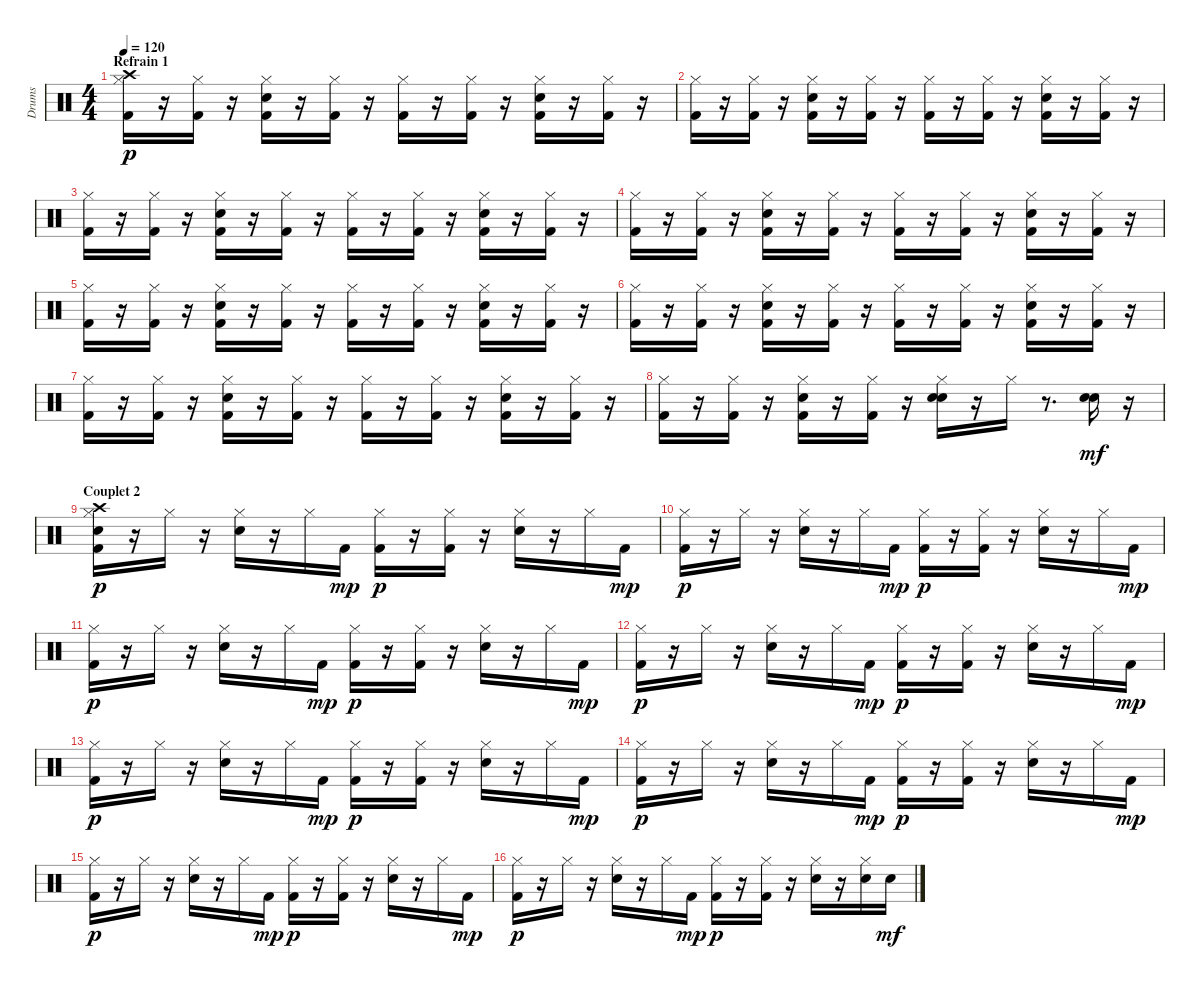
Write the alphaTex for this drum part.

\track ("Drums" "Drums") {instrument percussion}
\staff {score}
\articulation defaults
\ts (4 4)
\section ("" "Refrain 1")
\tempo 120
\clef neutral
\ks c
("Kick (hit) 2" "Hi-Hat (closed)" "Crash high (hit)").16{dy p} r.16 ("Kick (hit) 2" "Hi-Hat (closed)").16 r.16 ("Kick (hit) 2" "Electric Snare (hit)" "Hi-Hat (closed)").16 r.16 ("Kick (hit) 2" "Hi-Hat (closed)").16 r.16 ("Kick (hit) 2" "Hi-Hat (closed)").16 r.16 ("Kick (hit) 2" "Hi-Hat (closed)").16 r.16 ("Kick (hit) 2" "Electric Snare (hit)" "Hi-Hat (closed)").16 r.16 ("Kick (hit) 2" "Hi-Hat (closed)").16 r.16 |
("Kick (hit) 2" "Hi-Hat (closed)").16 r.16 ("Kick (hit) 2" "Hi-Hat (closed)").16 r.16 ("Kick (hit) 2" "Electric Snare (hit)" "Hi-Hat (closed)").16 r.16 ("Kick (hit) 2" "Hi-Hat (closed)").16 r.16 ("Kick (hit) 2" "Hi-Hat (closed)").16 r.16 ("Kick (hit) 2" "Hi-Hat (closed)").16 r.16 ("Kick (hit) 2" "Electric Snare (hit)" "Hi-Hat (closed)").16 r.16 ("Kick (hit) 2" "Hi-Hat (closed)").16 r.16 |
("Kick (hit) 2" "Hi-Hat (closed)").16 r.16 ("Kick (hit) 2" "Hi-Hat (closed)").16 r.16 ("Kick (hit) 2" "Electric Snare (hit)" "Hi-Hat (closed)").16 r.16 ("Kick (hit) 2" "Hi-Hat (closed)").16 r.16 ("Kick (hit) 2" "Hi-Hat (closed)").16 r.16 ("Kick (hit) 2" "Hi-Hat (closed)").16 r.16 ("Kick (hit) 2" "Electric Snare (hit)" "Hi-Hat (closed)").16 r.16 ("Kick (hit) 2" "Hi-Hat (closed)").16 r.16 |
("Kick (hit) 2" "Hi-Hat (closed)").16 r.16 ("Kick (hit) 2" "Hi-Hat (closed)").16 r.16 ("Kick (hit) 2" "Electric Snare (hit)" "Hi-Hat (closed)").16 r.16 ("Kick (hit) 2" "Hi-Hat (closed)").16 r.16 ("Kick (hit) 2" "Hi-Hat (closed)").16 r.16 ("Kick (hit) 2" "Hi-Hat (closed)").16 r.16 ("Kick (hit) 2" "Electric Snare (hit)" "Hi-Hat (closed)").16 r.16 ("Kick (hit) 2" "Hi-Hat (closed)").16 r.16 |
("Kick (hit) 2" "Hi-Hat (closed)").16 r.16 ("Kick (hit) 2" "Hi-Hat (closed)").16 r.16 ("Kick (hit) 2" "Electric Snare (hit)" "Hi-Hat (closed)").16 r.16 ("Kick (hit) 2" "Hi-Hat (closed)").16 r.16 ("Kick (hit) 2" "Hi-Hat (closed)").16 r.16 ("Kick (hit) 2" "Hi-Hat (closed)").16 r.16 ("Kick (hit) 2" "Electric Snare (hit)" "Hi-Hat (closed)").16 r.16 ("Kick (hit) 2" "Hi-Hat (closed)").16 r.16 |
("Kick (hit) 2" "Hi-Hat (closed)").16 r.16 ("Kick (hit) 2" "Hi-Hat (closed)").16 r.16 ("Kick (hit) 2" "Electric Snare (hit)" "Hi-Hat (closed)").16 r.16 ("Kick (hit) 2" "Hi-Hat (closed)").16 r.16 ("Kick (hit) 2" "Hi-Hat (closed)").16 r.16 ("Kick (hit) 2" "Hi-Hat (closed)").16 r.16 ("Kick (hit) 2" "Electric Snare (hit)" "Hi-Hat (closed)").16 r.16 ("Kick (hit) 2" "Hi-Hat (closed)").16 r.16 |
("Kick (hit) 2" "Hi-Hat (closed)").16 r.16 ("Kick (hit) 2" "Hi-Hat (closed)").16 r.16 ("Kick (hit) 2" "Electric Snare (hit)" "Hi-Hat (closed)").16 r.16 ("Kick (hit) 2" "Hi-Hat (closed)").16 r.16 ("Kick (hit) 2" "Hi-Hat (closed)").16 r.16 ("Kick (hit) 2" "Hi-Hat (closed)").16 r.16 ("Kick (hit) 2" "Electric Snare (hit)" "Hi-Hat (closed)").16 r.16 ("Kick (hit) 2" "Hi-Hat (closed)").16 r.16 |
("Kick (hit) 2" "Hi-Hat (closed)").16 r.16 ("Kick (hit) 2" "Hi-Hat (closed)").16 r.16 ("Kick (hit) 2" "Electric Snare (hit)" "Hi-Hat (closed)").16 r.16 ("Kick (hit) 2" "Hi-Hat (closed)").16 r.16 ("Electric Snare (hit)" "Hi-Hat (closed)" "Electric Snare (hit)").16 r.16 "Hi-Hat (closed)".16 r.8{d} ("Electric Snare (hit)" "Electric Snare (hit)").16{dy mf} r.16 |
\section ("" "Couplet 2")
("Electric Snare (hit)" "Kick (hit) 2" "Hi-Hat (closed)" "Crash high (hit)").16{dy p} r.16 "Hi-Hat (closed)".16 r.16 ("Electric Snare (hit)" "Hi-Hat (closed)").16 r.16 "Hi-Hat (closed)".16 "Kick (hit) 2".16{dy mp} ("Kick (hit) 2" "Hi-Hat (closed)").16{dy p} r.16 ("Kick (hit) 2" "Hi-Hat (closed)").16 r.16 ("Electric Snare (hit)" "Hi-Hat (closed)").16 r.16 "Hi-Hat (closed)".16 "Kick (hit) 2".16{dy mp} |
("Kick (hit) 2" "Hi-Hat (closed)").16{dy p} r.16 "Hi-Hat (closed)".16 r.16 ("Electric Snare (hit)" "Hi-Hat (closed)").16 r.16 "Hi-Hat (closed)".16 "Kick (hit) 2".16{dy mp} ("Kick (hit) 2" "Hi-Hat (closed)").16{dy p} r.16 ("Kick (hit) 2" "Hi-Hat (closed)").16 r.16 ("Electric Snare (hit)" "Hi-Hat (closed)").16 r.16 "Hi-Hat (closed)".16 "Kick (hit) 2".16{dy mp} |
("Kick (hit) 2" "Hi-Hat (closed)").16{dy p} r.16 "Hi-Hat (closed)".16 r.16 ("Electric Snare (hit)" "Hi-Hat (closed)").16 r.16 "Hi-Hat (closed)".16 "Kick (hit) 2".16{dy mp} ("Kick (hit) 2" "Hi-Hat (closed)").16{dy p} r.16 ("Kick (hit) 2" "Hi-Hat (closed)").16 r.16 ("Electric Snare (hit)" "Hi-Hat (closed)").16 r.16 "Hi-Hat (closed)".16 "Kick (hit) 2".16{dy mp} |
("Kick (hit) 2" "Hi-Hat (closed)").16{dy p} r.16 "Hi-Hat (closed)".16 r.16 ("Electric Snare (hit)" "Hi-Hat (closed)").16 r.16 "Hi-Hat (closed)".16 "Kick (hit) 2".16{dy mp} ("Kick (hit) 2" "Hi-Hat (closed)").16{dy p} r.16 ("Kick (hit) 2" "Hi-Hat (closed)").16 r.16 ("Electric Snare (hit)" "Hi-Hat (closed)").16 r.16 "Hi-Hat (closed)".16 "Kick (hit) 2".16{dy mp} |
("Kick (hit) 2" "Hi-Hat (closed)").16{dy p} r.16 "Hi-Hat (closed)".16 r.16 ("Electric Snare (hit)" "Hi-Hat (closed)").16 r.16 "Hi-Hat (closed)".16 "Kick (hit) 2".16{dy mp} ("Kick (hit) 2" "Hi-Hat (closed)").16{dy p} r.16 ("Kick (hit) 2" "Hi-Hat (closed)").16 r.16 ("Electric Snare (hit)" "Hi-Hat (closed)").16 r.16 "Hi-Hat (closed)".16 "Kick (hit) 2".16{dy mp} |
("Kick (hit) 2" "Hi-Hat (closed)").16{dy p} r.16 "Hi-Hat (closed)".16 r.16 ("Electric Snare (hit)" "Hi-Hat (closed)").16 r.16 "Hi-Hat (closed)".16 "Kick (hit) 2".16{dy mp} ("Kick (hit) 2" "Hi-Hat (closed)").16{dy p} r.16 ("Kick (hit) 2" "Hi-Hat (closed)").16 r.16 ("Electric Snare (hit)" "Hi-Hat (closed)").16 r.16 "Hi-Hat (closed)".16 "Kick (hit) 2".16{dy mp} |
("Kick (hit) 2" "Hi-Hat (closed)").16{dy p} r.16 "Hi-Hat (closed)".16 r.16 ("Electric Snare (hit)" "Hi-Hat (closed)").16 r.16 "Hi-Hat (closed)".16 "Kick (hit) 2".16{dy mp} ("Kick (hit) 2" "Hi-Hat (closed)").16{dy p} r.16 ("Kick (hit) 2" "Hi-Hat (closed)").16 r.16 ("Electric Snare (hit)" "Hi-Hat (closed)").16 r.16 "Hi-Hat (closed)".16 "Kick (hit) 2".16{dy mp} |
("Kick (hit) 2" "Hi-Hat (closed)").16{dy p} r.16 "Hi-Hat (closed)".16 r.16 ("Electric Snare (hit)" "Hi-Hat (closed)").16 r.16 "Hi-Hat (closed)".16 "Kick (hit) 2".16{dy mp} ("Kick (hit) 2" "Hi-Hat (closed)").16{dy p} r.16 ("Kick (hit) 2" "Hi-Hat (closed)").16 r.16 ("Electric Snare (hit)" "Hi-Hat (closed)").16 r.16 ("Electric Snare (hit)" "Hi-Hat (closed)").16 "Electric Snare (hit)".16{dy mf}
